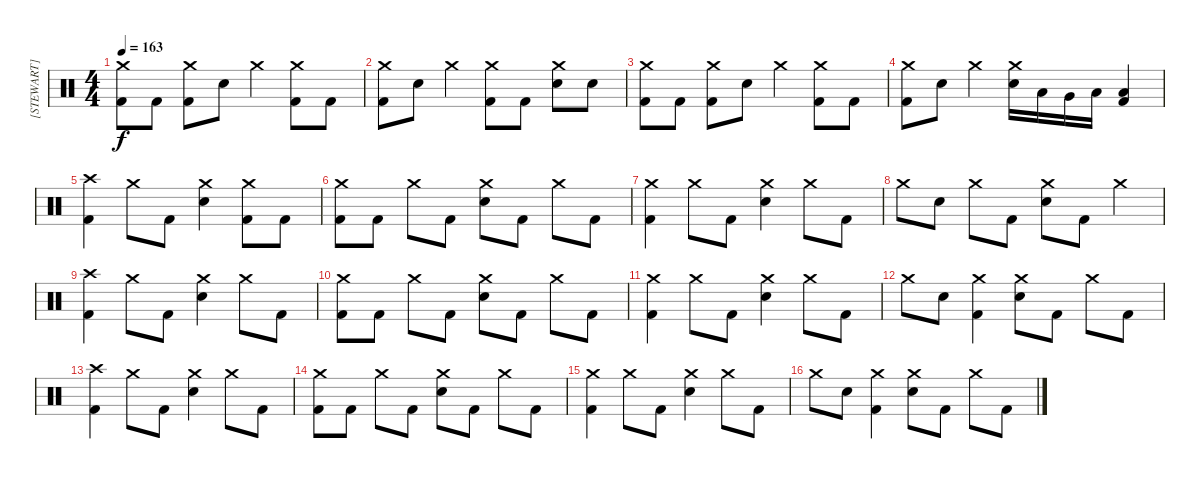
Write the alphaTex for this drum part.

\track ("[STEWART]" "[STEWART]") {instrument percussion}
\staff {score}
\articulation defaults
\ts (4 4)
\tempo 163
\clef neutral
\ks c
("Crash medium (hit)" "Kick (hit) 2").8{dy f} "Kick (hit) 2".8 ("Crash medium (hit)" "Kick (hit) 2").8 "Electric Snare (hit)".8 "Crash medium (hit)".4 ("Crash medium (hit)" "Kick (hit) 2").8 "Kick (hit) 2".8 |
("Crash medium (hit)" "Kick (hit) 2").8 "Electric Snare (hit)".8 "Crash medium (hit)".4 ("Crash medium (hit)" "Kick (hit) 2").8 "Kick (hit) 2".8 ("Crash medium (hit)" "Electric Snare (hit)").8 "Electric Snare (hit)".8 |
("Crash medium (hit)" "Kick (hit) 2").8 "Kick (hit) 2".8 ("Crash medium (hit)" "Kick (hit) 2").8 "Electric Snare (hit)".8 "Crash medium (hit)".4 ("Crash medium (hit)" "Kick (hit) 2").8 "Kick (hit) 2".8 |
("Crash medium (hit)" "Kick (hit) 2").8 "Electric Snare (hit)".8 "Crash medium (hit)".4 ("Crash medium (hit)" "Electric Snare (hit)").16 "Low Tom (hit)".16 "Very Low Tom (hit)".16 "Low Floor Tom (hit)".16 ("Low Floor Tom (hit)" "Kick (hit) 2").4 |
("Crash high (hit)" "Kick (hit) 2").4 "Crash medium (hit)".8 "Kick (hit) 2".8 ("Crash medium (hit)" "Electric Snare (hit)").4 ("Crash medium (hit)" "Kick (hit) 2").8 "Kick (hit) 2".8 |
("Crash medium (hit)" "Kick (hit) 2").8 "Kick (hit) 2".8 "Crash medium (hit)".8 "Kick (hit) 2".8 ("Crash medium (hit)" "Electric Snare (hit)").8 "Kick (hit) 2".8 "Crash medium (hit)".8 "Kick (hit) 2".8 |
("Crash medium (hit)" "Kick (hit) 2").4 "Crash medium (hit)".8 "Kick (hit) 2".8 ("Crash medium (hit)" "Electric Snare (hit)").4 "Crash medium (hit)".8 "Kick (hit) 2".8 |
"Crash medium (hit)".8 "Electric Snare (hit)".8 "Crash medium (hit)".8 "Kick (hit) 2".8 ("Crash medium (hit)" "Electric Snare (hit)").8 "Kick (hit) 2".8 "Crash medium (hit)".4 |
("Crash high (hit)" "Kick (hit) 2").4 "Crash medium (hit)".8 "Kick (hit) 2".8 ("Crash medium (hit)" "Electric Snare (hit)").4 "Crash medium (hit)".8 "Kick (hit) 2".8 |
("Crash medium (hit)" "Kick (hit) 2").8 "Kick (hit) 2".8 "Crash medium (hit)".8 "Kick (hit) 2".8 ("Crash medium (hit)" "Electric Snare (hit)").8 "Kick (hit) 2".8 "Crash medium (hit)".8 "Kick (hit) 2".8 |
("Crash medium (hit)" "Kick (hit) 2").4 "Crash medium (hit)".8 "Kick (hit) 2".8 ("Crash medium (hit)" "Electric Snare (hit)").4 "Crash medium (hit)".8 "Kick (hit) 2".8 |
"Crash medium (hit)".8 "Electric Snare (hit)".8 ("Crash medium (hit)" "Kick (hit) 2").4 ("Crash medium (hit)" "Electric Snare (hit)").8 "Kick (hit) 2".8 "Crash medium (hit)".8 "Kick (hit) 2".8 |
("Crash high (hit)" "Kick (hit) 2").4 "Crash medium (hit)".8 "Kick (hit) 2".8 ("Crash medium (hit)" "Electric Snare (hit)").4 "Crash medium (hit)".8 "Kick (hit) 2".8 |
("Crash medium (hit)" "Kick (hit) 2").8 "Kick (hit) 2".8 "Crash medium (hit)".8 "Kick (hit) 2".8 ("Crash medium (hit)" "Electric Snare (hit)").8 "Kick (hit) 2".8 "Crash medium (hit)".8 "Kick (hit) 2".8 |
("Crash medium (hit)" "Kick (hit) 2").4 "Crash medium (hit)".8 "Kick (hit) 2".8 ("Crash medium (hit)" "Electric Snare (hit)").4 "Crash medium (hit)".8 "Kick (hit) 2".8 |
"Crash medium (hit)".8 "Electric Snare (hit)".8 ("Crash medium (hit)" "Kick (hit) 2").4 ("Crash medium (hit)" "Electric Snare (hit)").8 "Kick (hit) 2".8 "Crash medium (hit)".8 "Kick (hit) 2".8
